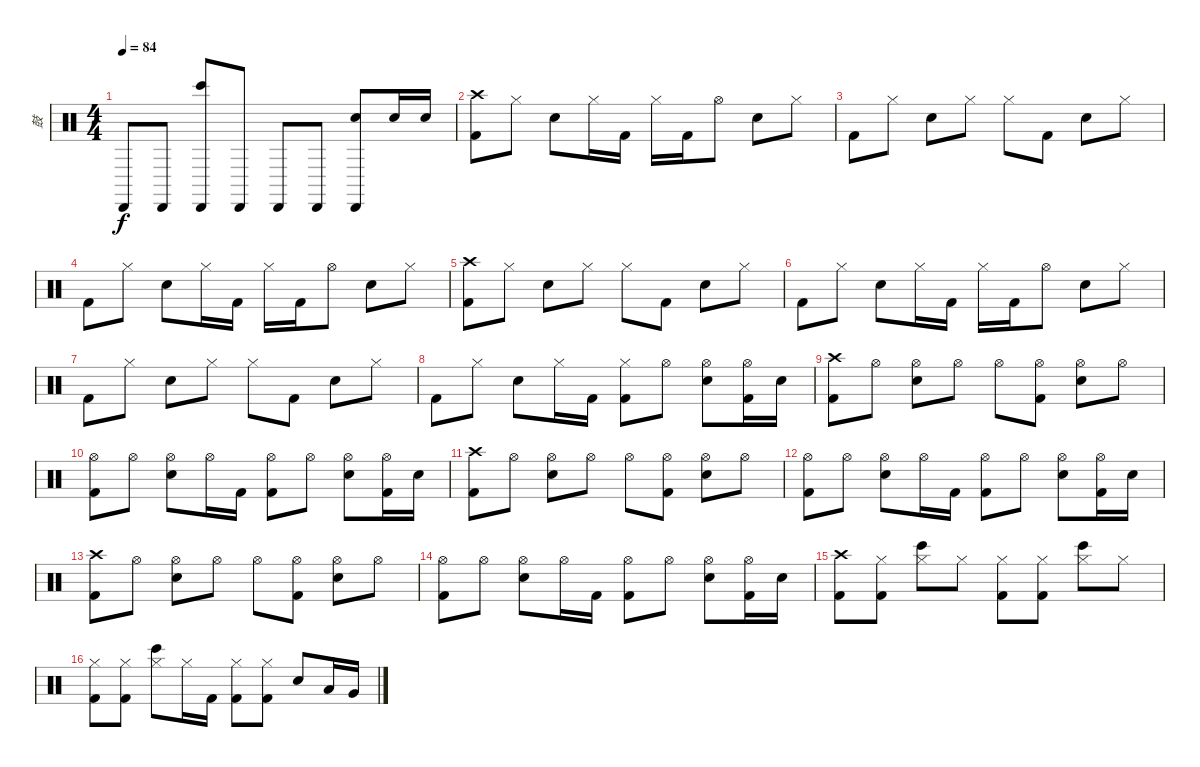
\track ("鼓" "鼓") {instrument percussion}
\staff {score}
\articulation defaults
\ts (4 4)
\tempo 84
\clef neutral
\ks c "Cabasa (hit)".8{dy f} "Cabasa (hit)".8
("Cabasa (hit)" "Bongo High (hit)").8 "Cabasa (hit)".8 "Cabasa (hit)".8 "Cabasa (hit)".8 ("Cabasa (hit)" "Electric Snare (hit)").8 "Electric Snare (hit)".16 "Electric Snare (hit)".16 |
("Crash high (hit)" "Kick (hit) 2").8 "Hi-Hat (closed)".8 "Electric Snare (hit)".8 "Hi-Hat (closed)".16 "Kick (hit) 2".16 "Hi-Hat (closed)".16 "Kick (hit) 2".16 "Hi-Hat (open)".8 "Electric Snare (hit)".8 "Hi-Hat (closed)".8 |
"Kick (hit) 2".8 "Hi-Hat (closed)".8 "Electric Snare (hit)".8 "Hi-Hat (closed)".8 "Hi-Hat (closed)".8 "Kick (hit) 2".8 "Electric Snare (hit)".8 "Hi-Hat (closed)".8 |
"Kick (hit) 2".8 "Hi-Hat (closed)".8 "Electric Snare (hit)".8 "Hi-Hat (closed)".16 "Kick (hit) 2".16 "Hi-Hat (closed)".16 "Kick (hit) 2".16 "Hi-Hat (open)".8 "Electric Snare (hit)".8 "Hi-Hat (closed)".8 |
("Crash high (hit)" "Kick (hit) 2").8 "Hi-Hat (closed)".8 "Electric Snare (hit)".8 "Hi-Hat (closed)".8 "Hi-Hat (closed)".8 "Kick (hit) 2".8 "Electric Snare (hit)".8 "Hi-Hat (closed)".8 |
"Kick (hit) 2".8 "Hi-Hat (closed)".8 "Electric Snare (hit)".8 "Hi-Hat (closed)".16 "Kick (hit) 2".16 "Hi-Hat (closed)".16 "Kick (hit) 2".16 "Hi-Hat (open)".8 "Electric Snare (hit)".8 "Hi-Hat (closed)".8 |
"Kick (hit) 2".8 "Hi-Hat (closed)".8 "Electric Snare (hit)".8 "Hi-Hat (closed)".8 "Hi-Hat (closed)".8 "Kick (hit) 2".8 "Electric Snare (hit)".8 "Hi-Hat (closed)".8 |
"Kick (hit) 2".8 "Hi-Hat (closed)".8 "Electric Snare (hit)".8 "Hi-Hat (closed)".16 "Kick (hit) 2".16 ("Hi-Hat (closed)" "Kick (hit) 2").8 "Hi-Hat (open)".8 ("Hi-Hat (open)" "Electric Snare (hit)").8 ("Hi-Hat (open)" "Kick (hit) 2").16 "Electric Snare (hit)".16 |
("Crash high (hit)" "Kick (hit) 2").8 "Hi-Hat (open)".8 ("Hi-Hat (open)" "Electric Snare (hit)").8 "Hi-Hat (open)".8 "Hi-Hat (open)".8 ("Hi-Hat (open)" "Kick (hit) 2").8 ("Hi-Hat (open)" "Electric Snare (hit)").8 "Hi-Hat (open)".8 |
("Hi-Hat (open)" "Kick (hit) 2").8 "Hi-Hat (open)".8 ("Hi-Hat (open)" "Electric Snare (hit)").8 "Hi-Hat (open)".16 "Kick (hit) 2".16 ("Hi-Hat (open)" "Kick (hit) 2").8 "Hi-Hat (open)".8 ("Hi-Hat (open)" "Electric Snare (hit)").8 ("Hi-Hat (open)" "Kick (hit) 2").16 "Electric Snare (hit)".16 |
("Crash high (hit)" "Kick (hit) 2").8 "Hi-Hat (open)".8 ("Hi-Hat (open)" "Electric Snare (hit)").8 "Hi-Hat (open)".8 "Hi-Hat (open)".8 ("Hi-Hat (open)" "Kick (hit) 2").8 ("Hi-Hat (open)" "Electric Snare (hit)").8 "Hi-Hat (open)".8 |
("Hi-Hat (open)" "Kick (hit) 2").8 "Hi-Hat (open)".8 ("Hi-Hat (open)" "Electric Snare (hit)").8 "Hi-Hat (open)".16 "Kick (hit) 2".16 ("Hi-Hat (open)" "Kick (hit) 2").8 "Hi-Hat (open)".8 ("Hi-Hat (open)" "Electric Snare (hit)").8 ("Hi-Hat (open)" "Kick (hit) 2").16 "Electric Snare (hit)".16 |
("Crash high (hit)" "Kick (hit) 2").8 "Hi-Hat (open)".8 ("Hi-Hat (open)" "Electric Snare (hit)").8 "Hi-Hat (open)".8 "Hi-Hat (open)".8 ("Hi-Hat (open)" "Kick (hit) 2").8 ("Hi-Hat (open)" "Electric Snare (hit)").8 "Hi-Hat (open)".8 |
("Hi-Hat (open)" "Kick (hit) 2").8 "Hi-Hat (open)".8 ("Hi-Hat (open)" "Electric Snare (hit)").8 "Hi-Hat (open)".16 "Kick (hit) 2".16 ("Hi-Hat (open)" "Kick (hit) 2").8 "Hi-Hat (open)".8 ("Hi-Hat (open)" "Electric Snare (hit)").8 ("Hi-Hat (open)" "Kick (hit) 2").16 "Electric Snare (hit)".16 |
("Crash high (hit)" "Kick (hit) 2").8 ("Hi-Hat (closed)" "Kick (hit) 2").8 ("Hi-Hat (closed)" "Bongo High (hit)").8 "Hi-Hat (closed)".8 ("Hi-Hat (closed)" "Kick (hit) 2").8 ("Hi-Hat (closed)" "Kick (hit) 2").8 ("Hi-Hat (closed)" "Bongo High (hit)").8 "Hi-Hat (closed)".8 |
("Hi-Hat (closed)" "Kick (hit) 2").8 ("Hi-Hat (closed)" "Kick (hit) 2").8 ("Hi-Hat (closed)" "Bongo High (hit)").8 "Hi-Hat (closed)".16 "Kick (hit) 2".16 ("Hi-Hat (closed)" "Kick (hit) 2").8 ("Hi-Hat (closed)" "Kick (hit) 2").8 "Electric Snare (hit)".8 "Low Tom (hit)".16 "Very Low Tom (hit)".16
